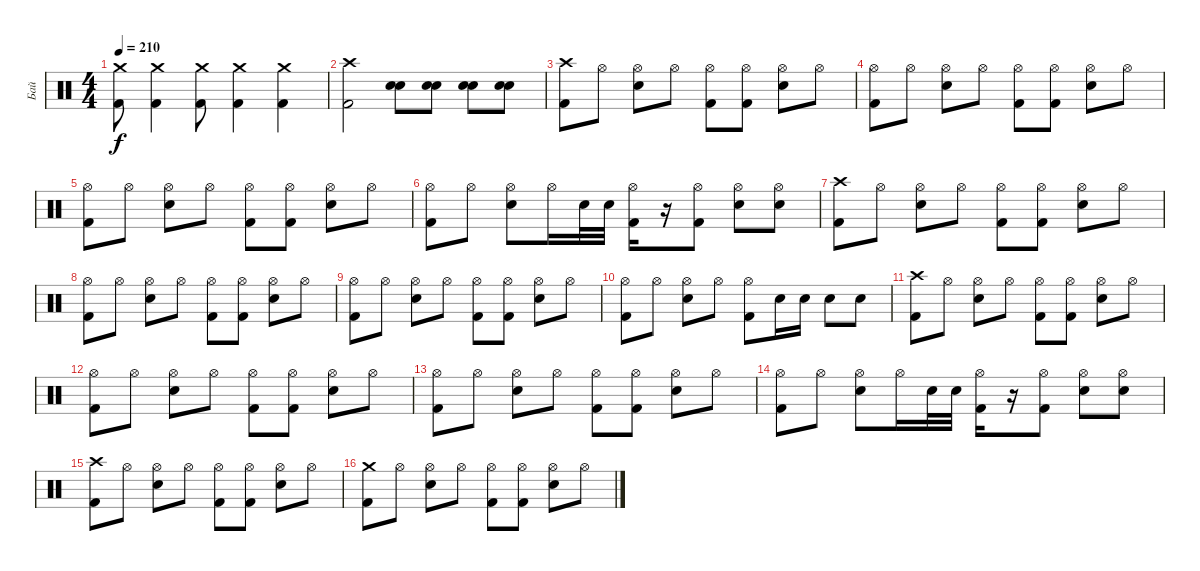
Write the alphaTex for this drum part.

\track ("Бай" "Бай") {instrument percussion}
\staff {score}
\articulation defaults
\ts (4 4)
\tempo 210
\clef neutral
\ks c
("Kick (hit) 2" "Crash medium (hit)").8{dy f} ("Kick (hit) 2" "Crash medium (hit)").4 ("Kick (hit) 2" "Crash medium (hit)").8 ("Kick (hit) 2" "Crash medium (hit)").4 ("Kick (hit) 2" "Crash medium (hit)").4 |
("Kick (hit) 2" "Crash high (hit)").2 ("Electric Snare (hit)" "Electric Snare (hit)").8 ("Electric Snare (hit)" "Electric Snare (hit)").8 ("Electric Snare (hit)" "Electric Snare (hit)").8 ("Electric Snare (hit)" "Electric Snare (hit)").8 |
("Kick (hit) 2" "Crash high (hit)").8 "Hi-Hat (open)".8 ("Electric Snare (hit)" "Hi-Hat (open)").8 "Hi-Hat (open)".8 ("Kick (hit) 2" "Hi-Hat (open)").8 ("Kick (hit) 2" "Hi-Hat (open)").8 ("Electric Snare (hit)" "Hi-Hat (open)").8 "Hi-Hat (open)".8 |
("Kick (hit) 2" "Hi-Hat (open)").8 "Hi-Hat (open)".8 ("Electric Snare (hit)" "Hi-Hat (open)").8 "Hi-Hat (open)".8 ("Kick (hit) 2" "Hi-Hat (open)").8 ("Kick (hit) 2" "Hi-Hat (open)").8 ("Electric Snare (hit)" "Hi-Hat (open)").8 "Hi-Hat (open)".8 |
("Kick (hit) 2" "Hi-Hat (open)").8 "Hi-Hat (open)".8 ("Electric Snare (hit)" "Hi-Hat (open)").8 "Hi-Hat (open)".8 ("Kick (hit) 2" "Hi-Hat (open)").8 ("Kick (hit) 2" "Hi-Hat (open)").8 ("Electric Snare (hit)" "Hi-Hat (open)").8 "Hi-Hat (open)".8 |
("Kick (hit) 2" "Hi-Hat (open)").8 "Hi-Hat (open)".8 ("Electric Snare (hit)" "Hi-Hat (open)").8 "Hi-Hat (open)".16 "Electric Snare (hit)".32 "Electric Snare (hit)".32 ("Kick (hit) 2" "Hi-Hat (open)").16 r.16 ("Kick (hit) 2" "Hi-Hat (open)").8 ("Electric Snare (hit)" "Hi-Hat (open)").8 ("Electric Snare (hit)" "Hi-Hat (open)").8 |
("Kick (hit) 2" "Crash high (hit)").8 "Hi-Hat (open)".8 ("Electric Snare (hit)" "Hi-Hat (open)").8 "Hi-Hat (open)".8 ("Kick (hit) 2" "Hi-Hat (open)").8 ("Kick (hit) 2" "Hi-Hat (open)").8 ("Electric Snare (hit)" "Hi-Hat (open)").8 "Hi-Hat (open)".8 |
("Kick (hit) 2" "Hi-Hat (open)").8 "Hi-Hat (open)".8 ("Electric Snare (hit)" "Hi-Hat (open)").8 "Hi-Hat (open)".8 ("Kick (hit) 2" "Hi-Hat (open)").8 ("Kick (hit) 2" "Hi-Hat (open)").8 ("Electric Snare (hit)" "Hi-Hat (open)").8 "Hi-Hat (open)".8 |
("Kick (hit) 2" "Hi-Hat (open)").8 "Hi-Hat (open)".8 ("Electric Snare (hit)" "Hi-Hat (open)").8 "Hi-Hat (open)".8 ("Kick (hit) 2" "Hi-Hat (open)").8 ("Kick (hit) 2" "Hi-Hat (open)").8 ("Electric Snare (hit)" "Hi-Hat (open)").8 "Hi-Hat (open)".8 |
("Kick (hit) 2" "Hi-Hat (open)").8 "Hi-Hat (open)".8 ("Electric Snare (hit)" "Hi-Hat (open)").8 "Hi-Hat (open)".8 ("Kick (hit) 2" "Hi-Hat (open)").8 "Electric Snare (hit)".16 "Electric Snare (hit)".16 "Electric Snare (hit)".8 "Electric Snare (hit)".8 |
("Kick (hit) 2" "Crash high (hit)").8 "Hi-Hat (open)".8 ("Electric Snare (hit)" "Hi-Hat (open)").8 "Hi-Hat (open)".8 ("Kick (hit) 2" "Hi-Hat (open)").8 ("Kick (hit) 2" "Hi-Hat (open)").8 ("Electric Snare (hit)" "Hi-Hat (open)").8 "Hi-Hat (open)".8 |
("Kick (hit) 2" "Hi-Hat (open)").8 "Hi-Hat (open)".8 ("Electric Snare (hit)" "Hi-Hat (open)").8 "Hi-Hat (open)".8 ("Kick (hit) 2" "Hi-Hat (open)").8 ("Kick (hit) 2" "Hi-Hat (open)").8 ("Electric Snare (hit)" "Hi-Hat (open)").8 "Hi-Hat (open)".8 |
("Kick (hit) 2" "Hi-Hat (open)").8 "Hi-Hat (open)".8 ("Electric Snare (hit)" "Hi-Hat (open)").8 "Hi-Hat (open)".8 ("Kick (hit) 2" "Hi-Hat (open)").8 ("Kick (hit) 2" "Hi-Hat (open)").8 ("Electric Snare (hit)" "Hi-Hat (open)").8 "Hi-Hat (open)".8 |
("Kick (hit) 2" "Hi-Hat (open)").8 "Hi-Hat (open)".8 ("Electric Snare (hit)" "Hi-Hat (open)").8 "Hi-Hat (open)".16 "Electric Snare (hit)".32 "Electric Snare (hit)".32 ("Kick (hit) 2" "Hi-Hat (open)").16 r.16 ("Kick (hit) 2" "Hi-Hat (open)").8 ("Electric Snare (hit)" "Hi-Hat (open)").8 ("Electric Snare (hit)" "Hi-Hat (open)").8 |
("Kick (hit) 2" "Crash high (hit)").8 "Hi-Hat (open)".8 ("Electric Snare (hit)" "Hi-Hat (open)").8 "Hi-Hat (open)".8 ("Kick (hit) 2" "Hi-Hat (open)").8 ("Kick (hit) 2" "Hi-Hat (open)").8 ("Electric Snare (hit)" "Hi-Hat (open)").8 "Hi-Hat (open)".8 |
("Kick (hit) 2" "Crash medium (hit)").8 "Hi-Hat (open)".8 ("Electric Snare (hit)" "Hi-Hat (open)").8 "Hi-Hat (open)".8 ("Kick (hit) 2" "Hi-Hat (open)").8 ("Kick (hit) 2" "Hi-Hat (open)").8 ("Electric Snare (hit)" "Hi-Hat (open)").8 "Hi-Hat (open)".8
